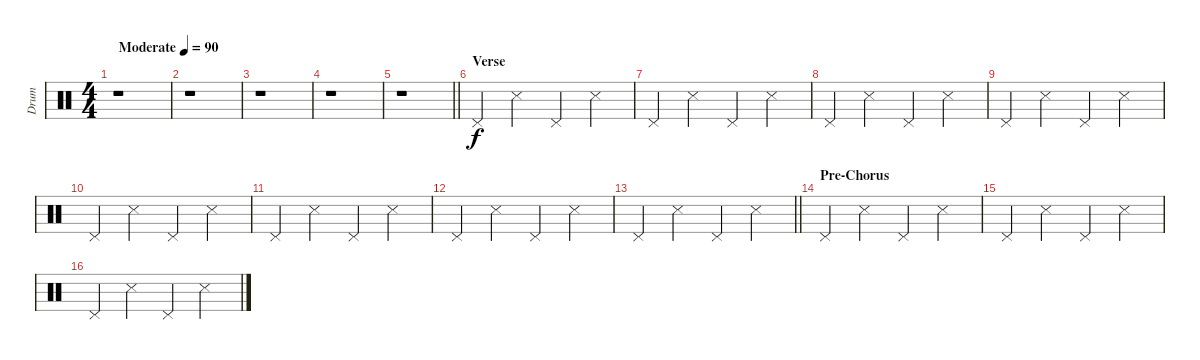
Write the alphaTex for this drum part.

\track ("Drum" "Drum") {instrument percussion}
\staff {score}
\articulation defaults
\ts (4 4)
\tempo (90 "Moderate")
\clef neutral
\ks c
r.1{dy f} |
r.1 |
r.1 |
r.1 |
\barLineRight lightlight
r.1 |
\section ("" "Verse")
"Pedal Hi-Hat (hit)".4 "Snare (side stick) 3".4 "Pedal Hi-Hat (hit)".4 "Snare (side stick) 3".4 |
"Pedal Hi-Hat (hit)".4 "Snare (side stick) 3".4 "Pedal Hi-Hat (hit)".4 "Snare (side stick) 3".4 |
"Pedal Hi-Hat (hit)".4 "Snare (side stick) 3".4 "Pedal Hi-Hat (hit)".4 "Snare (side stick) 3".4 |
"Pedal Hi-Hat (hit)".4 "Snare (side stick) 3".4 "Pedal Hi-Hat (hit)".4 "Snare (side stick) 3".4 |
"Pedal Hi-Hat (hit)".4 "Snare (side stick) 3".4 "Pedal Hi-Hat (hit)".4 "Snare (side stick) 3".4 |
"Pedal Hi-Hat (hit)".4 "Snare (side stick) 3".4 "Pedal Hi-Hat (hit)".4 "Snare (side stick) 3".4 |
"Pedal Hi-Hat (hit)".4 "Snare (side stick) 3".4 "Pedal Hi-Hat (hit)".4 "Snare (side stick) 3".4 |
\barLineRight lightlight "Pedal Hi-Hat (hit)".4 "Snare (side stick) 3".4 "Pedal Hi-Hat (hit)".4 "Snare (side stick) 3".4
|
\section ("" "Pre-Chorus")
"Pedal Hi-Hat (hit)".4 "Snare (side stick) 3".4 "Pedal Hi-Hat (hit)".4 "Snare (side stick) 3".4 |
"Pedal Hi-Hat (hit)".4 "Snare (side stick) 3".4 "Pedal Hi-Hat (hit)".4 "Snare (side stick) 3".4 |
"Pedal Hi-Hat (hit)".4 "Snare (side stick) 3".4 "Pedal Hi-Hat (hit)".4 "Snare (side stick) 3".4{volume 3}
